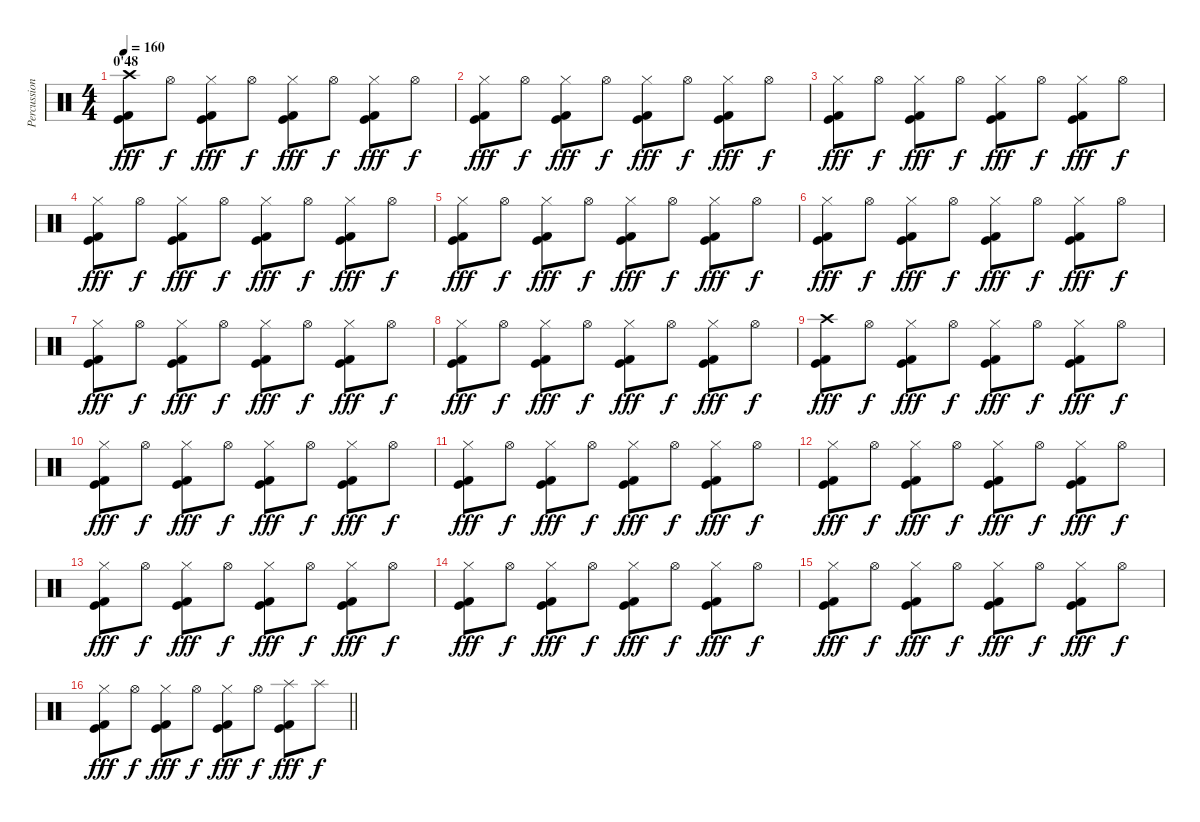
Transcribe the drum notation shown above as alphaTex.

\track ("Percussions" "Percussion") {instrument percussion}
\staff {score}
\articulation defaults
\ts (4 4)
\section ("" "0'48")
\tempo 160
\clef neutral
\ks c
("Crash high (hit)" "Kick (hit) 2" "Kick (hit)").8{dy fff} "Hi-Hat (open)".8{dy f} ("Hi-Hat (closed)" "Kick (hit) 2" "Kick (hit)").8{dy fff} "Hi-Hat (open)".8{dy f} ("Hi-Hat (closed)" "Kick (hit) 2" "Kick (hit)").8{dy fff} "Hi-Hat (open)".8{dy f} ("Hi-Hat (closed)" "Kick (hit) 2" "Kick (hit)").8{dy fff} "Hi-Hat (open)".8{dy f} |
("Hi-Hat (closed)" "Kick (hit) 2" "Kick (hit)").8{dy fff} "Hi-Hat (open)".8{dy f} ("Hi-Hat (closed)" "Kick (hit) 2" "Kick (hit)").8{dy fff} "Hi-Hat (open)".8{dy f} ("Hi-Hat (closed)" "Kick (hit) 2" "Kick (hit)").8{dy fff} "Hi-Hat (open)".8{dy f} ("Hi-Hat (closed)" "Kick (hit) 2" "Kick (hit)").8{dy fff} "Hi-Hat (open)".8{dy f} |
("Hi-Hat (closed)" "Kick (hit) 2" "Kick (hit)").8{dy fff} "Hi-Hat (open)".8{dy f} ("Hi-Hat (closed)" "Kick (hit) 2" "Kick (hit)").8{dy fff} "Hi-Hat (open)".8{dy f} ("Hi-Hat (closed)" "Kick (hit) 2" "Kick (hit)").8{dy fff} "Hi-Hat (open)".8{dy f} ("Hi-Hat (closed)" "Kick (hit) 2" "Kick (hit)").8{dy fff} "Hi-Hat (open)".8{dy f} |
("Hi-Hat (closed)" "Kick (hit) 2" "Kick (hit)").8{dy fff} "Hi-Hat (open)".8{dy f} ("Hi-Hat (closed)" "Kick (hit) 2" "Kick (hit)").8{dy fff} "Hi-Hat (open)".8{dy f} ("Hi-Hat (closed)" "Kick (hit) 2" "Kick (hit)").8{dy fff} "Hi-Hat (open)".8{dy f} ("Hi-Hat (closed)" "Kick (hit) 2" "Kick (hit)").8{dy fff} "Hi-Hat (open)".8{dy f} |
("Hi-Hat (closed)" "Kick (hit) 2" "Kick (hit)").8{dy fff} "Hi-Hat (open)".8{dy f} ("Hi-Hat (closed)" "Kick (hit) 2" "Kick (hit)").8{dy fff} "Hi-Hat (open)".8{dy f} ("Hi-Hat (closed)" "Kick (hit) 2" "Kick (hit)").8{dy fff} "Hi-Hat (open)".8{dy f} ("Hi-Hat (closed)" "Kick (hit) 2" "Kick (hit)").8{dy fff} "Hi-Hat (open)".8{dy f} |
("Hi-Hat (closed)" "Kick (hit) 2" "Kick (hit)").8{dy fff} "Hi-Hat (open)".8{dy f} ("Hi-Hat (closed)" "Kick (hit) 2" "Kick (hit)").8{dy fff} "Hi-Hat (open)".8{dy f} ("Hi-Hat (closed)" "Kick (hit) 2" "Kick (hit)").8{dy fff} "Hi-Hat (open)".8{dy f} ("Hi-Hat (closed)" "Kick (hit) 2" "Kick (hit)").8{dy fff} "Hi-Hat (open)".8{dy f} |
("Hi-Hat (closed)" "Kick (hit) 2" "Kick (hit)").8{dy fff} "Hi-Hat (open)".8{dy f} ("Hi-Hat (closed)" "Kick (hit) 2" "Kick (hit)").8{dy fff} "Hi-Hat (open)".8{dy f} ("Hi-Hat (closed)" "Kick (hit) 2" "Kick (hit)").8{dy fff} "Hi-Hat (open)".8{dy f} ("Hi-Hat (closed)" "Kick (hit) 2" "Kick (hit)").8{dy fff} "Hi-Hat (open)".8{dy f} |
("Hi-Hat (closed)" "Kick (hit) 2" "Kick (hit)").8{dy fff} "Hi-Hat (open)".8{dy f} ("Hi-Hat (closed)" "Kick (hit) 2" "Kick (hit)").8{dy fff} "Hi-Hat (open)".8{dy f} ("Hi-Hat (closed)" "Kick (hit) 2" "Kick (hit)").8{dy fff} "Hi-Hat (open)".8{dy f} ("Hi-Hat (closed)" "Kick (hit) 2" "Kick (hit)").8{dy fff} "Hi-Hat (open)".8{dy f} |
("Crash high (hit)" "Kick (hit) 2" "Kick (hit)").8{dy fff} "Hi-Hat (open)".8{dy f} ("Hi-Hat (closed)" "Kick (hit) 2" "Kick (hit)").8{dy fff} "Hi-Hat (open)".8{dy f} ("Hi-Hat (closed)" "Kick (hit) 2" "Kick (hit)").8{dy fff} "Hi-Hat (open)".8{dy f} ("Hi-Hat (closed)" "Kick (hit) 2" "Kick (hit)").8{dy fff} "Hi-Hat (open)".8{dy f} |
("Hi-Hat (closed)" "Kick (hit) 2" "Kick (hit)").8{dy fff} "Hi-Hat (open)".8{dy f} ("Hi-Hat (closed)" "Kick (hit) 2" "Kick (hit)").8{dy fff} "Hi-Hat (open)".8{dy f} ("Hi-Hat (closed)" "Kick (hit) 2" "Kick (hit)").8{dy fff} "Hi-Hat (open)".8{dy f} ("Hi-Hat (closed)" "Kick (hit) 2" "Kick (hit)").8{dy fff} "Hi-Hat (open)".8{dy f} |
("Hi-Hat (closed)" "Kick (hit) 2" "Kick (hit)").8{dy fff} "Hi-Hat (open)".8{dy f} ("Hi-Hat (closed)" "Kick (hit) 2" "Kick (hit)").8{dy fff} "Hi-Hat (open)".8{dy f} ("Hi-Hat (closed)" "Kick (hit) 2" "Kick (hit)").8{dy fff} "Hi-Hat (open)".8{dy f} ("Hi-Hat (closed)" "Kick (hit) 2" "Kick (hit)").8{dy fff} "Hi-Hat (open)".8{dy f} |
("Hi-Hat (closed)" "Kick (hit) 2" "Kick (hit)").8{dy fff} "Hi-Hat (open)".8{dy f} ("Hi-Hat (closed)" "Kick (hit) 2" "Kick (hit)").8{dy fff} "Hi-Hat (open)".8{dy f} ("Hi-Hat (closed)" "Kick (hit) 2" "Kick (hit)").8{dy fff} "Hi-Hat (open)".8{dy f} ("Hi-Hat (closed)" "Kick (hit) 2" "Kick (hit)").8{dy fff} "Hi-Hat (open)".8{dy f} |
("Hi-Hat (closed)" "Kick (hit) 2" "Kick (hit)").8{dy fff} "Hi-Hat (open)".8{dy f} ("Hi-Hat (closed)" "Kick (hit) 2" "Kick (hit)").8{dy fff} "Hi-Hat (open)".8{dy f} ("Hi-Hat (closed)" "Kick (hit) 2" "Kick (hit)").8{dy fff} "Hi-Hat (open)".8{dy f} ("Hi-Hat (closed)" "Kick (hit) 2" "Kick (hit)").8{dy fff} "Hi-Hat (open)".8{dy f} |
("Hi-Hat (closed)" "Kick (hit) 2" "Kick (hit)").8{dy fff} "Hi-Hat (open)".8{dy f} ("Hi-Hat (closed)" "Kick (hit) 2" "Kick (hit)").8{dy fff} "Hi-Hat (open)".8{dy f} ("Hi-Hat (closed)" "Kick (hit) 2" "Kick (hit)").8{dy fff} "Hi-Hat (open)".8{dy f} ("Hi-Hat (closed)" "Kick (hit) 2" "Kick (hit)").8{dy fff} "Hi-Hat (open)".8{dy f} |
("Hi-Hat (closed)" "Kick (hit) 2" "Kick (hit)").8{dy fff} "Hi-Hat (open)".8{dy f} ("Hi-Hat (closed)" "Kick (hit) 2" "Kick (hit)").8{dy fff} "Hi-Hat (open)".8{dy f} ("Hi-Hat (closed)" "Kick (hit) 2" "Kick (hit)").8{dy fff} "Hi-Hat (open)".8{dy f} ("Hi-Hat (closed)" "Kick (hit) 2" "Kick (hit)").8{dy fff} "Hi-Hat (open)".8{dy f} |
\barLineRight lightlight
("Hi-Hat (closed)" "Kick (hit) 2" "Kick (hit)").8{dy fff} "Hi-Hat (open)".8{dy f} ("Hi-Hat (closed)" "Kick (hit) 2" "Kick (hit)").8{dy fff} "Hi-Hat (open)".8{dy f} ("Hi-Hat (closed)" "Kick (hit) 2" "Kick (hit)").8{dy fff} "Hi-Hat (open)".8{dy f} ("Splash (hit)" "Kick (hit) 2" "Kick (hit)").8{dy fff} "Splash (hit)".8{dy f}
